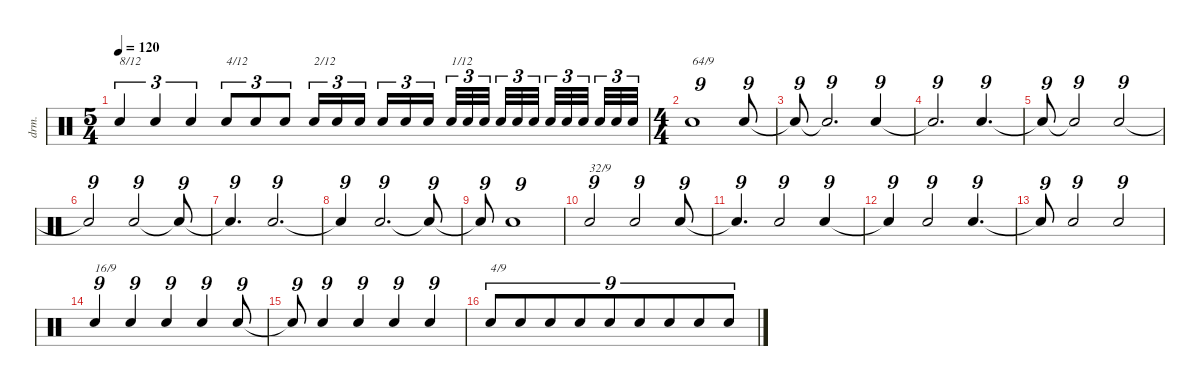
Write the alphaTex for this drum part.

\defaultSystemsLayout 4
\hideDynamics
\bracketExtendMode nobrackets
\otherSystemsTrackNameOrientation horizontal
\track ("Drumkit" "drm.") {instrument percussion}
\staff {score}
\articulation defaults
\ts (5 4)
\tempo 120
\clef neutral
\ks c "Snare (hit) 2".4{tu (3 2) txt "8/12" dy mf beam Up} "Snare (hit) 2".4{tu (3 2) beam Up} "Snare (hit) 2".4{tu (3 2) beam Up} "Snare (hit) 2".8{tu (3 2) txt "4/12" beam Up} "Snare (hit) 2".8{tu (3 2) beam Up} "Snare (hit) 2".8{tu (3 2) beam Up} "Snare (hit) 2".16{tu (3 2) txt "2/12" beam Up} "Snare (hit) 2".16{tu (3 2) beam Up} "Snare (hit) 2".16{tu (3 2) beam Up} "Snare (hit) 2".16{tu (3 2) beam Up} "Snare (hit) 2".16{tu (3 2) beam Up} "Snare (hit) 2".16{tu (3 2) beam Up} "Snare (hit) 2".32{tu (3 2) txt "1/12" beam Up} "Snare (hit) 2".32{tu (3 2) beam Up} "Snare (hit) 2".32{tu (3 2) beam Up} "Snare (hit) 2".32{tu (3 2) beam Up} "Snare (hit) 2".32{tu (3 2) beam Up} "Snare (hit) 2".32{tu (3 2) beam Up} "Snare (hit) 2".32{tu (3 2) beam Up} "Snare (hit) 2".32{tu (3 2) beam Up} "Snare (hit) 2".32{tu (3 2) beam Up} "Snare (hit) 2".32{tu (3 2) beam Up} "Snare (hit) 2".32{tu (3 2) beam Up} "Snare (hit) 2".32{tu (3 2) beam Up}
|
\ts (4 4)
\beaming (8 2 2 2 2)
"Snare (hit) 2".1{tu (9 8) txt "64/9" beam Up} "Snare (hit) 2".8{tu (9 8) beam Up} |
"Snare (hit) 2"{t}.8{tu (9 8) beam Up} "Snare (hit) 2"{t}.2{d tu (9 8) beam Up} "Snare (hit) 2".4{tu (9 8) beam Up} |
"Snare (hit) 2"{t}.2{d tu (9 8) beam Up} "Snare (hit) 2".4{d tu (9 8) beam Up} |
"Snare (hit) 2"{t}.8{tu (9 8) beam Up} "Snare (hit) 2"{t}.2{tu (9 8) beam Up} "Snare (hit) 2".2{tu (9 8) beam Up} |
"Snare (hit) 2"{t}.2{tu (9 8) beam Up} "Snare (hit) 2".2{tu (9 8) beam Up} "Snare (hit) 2"{t}.8{tu (9 8) beam Up} |
"Snare (hit) 2"{t}.4{d tu (9 8) beam Up} "Snare (hit) 2".2{d tu (9 8) beam Up} |
"Snare (hit) 2"{t}.4{tu (9 8) beam Up} "Snare (hit) 2".2{d tu (9 8) beam Up} "Snare (hit) 2"{t}.8{tu (9 8) beam Up} |
"Snare (hit) 2"{t}.8{tu (9 8) beam Up} "Snare (hit) 2".1{tu (9 8) beam Up} |
"Snare (hit) 2".2{tu (9 8) txt "32/9" beam Up} "Snare (hit) 2".2{tu (9 8) beam Up} "Snare (hit) 2".8{tu (9 8) beam Up} |
"Snare (hit) 2"{t}.4{d tu (9 8) beam Up} "Snare (hit) 2".2{tu (9 8) beam Up} "Snare (hit) 2".4{tu (9 8) beam Up} |
"Snare (hit) 2"{t}.4{tu (9 8) beam Up} "Snare (hit) 2".2{tu (9 8) beam Up} "Snare (hit) 2".4{d tu (9 8) beam Up} |
"Snare (hit) 2"{t}.8{tu (9 8) beam Up} "Snare (hit) 2".2{tu (9 8) beam Up} "Snare (hit) 2".2{tu (9 8) beam Up} |
"Snare (hit) 2".4{tu (9 8) txt "16/9" beam Up} "Snare (hit) 2".4{tu (9 8) beam Up} "Snare (hit) 2".4{tu (9 8) beam Up} "Snare (hit) 2".4{tu (9 8) beam Up} "Snare (hit) 2".8{tu (9 8) beam Up} |
"Snare (hit) 2"{t}.8{tu (9 8) beam Up} "Snare (hit) 2".4{tu (9 8) beam Up} "Snare (hit) 2".4{tu (9 8) beam Up} "Snare (hit) 2".4{tu (9 8) beam Up} "Snare (hit) 2".4{tu (9 8) beam Up} |
"Snare (hit) 2".8{tu (9 8) txt "4/9" beam Up} "Snare (hit) 2".8{tu (9 8) beam Up} "Snare (hit) 2".8{tu (9 8) beam Up} "Snare (hit) 2".8{tu (9 8) beam Up} "Snare (hit) 2".8{tu (9 8) beam Up} "Snare (hit) 2".8{tu (9 8) beam Up} "Snare (hit) 2".8{tu (9 8) beam Up} "Snare (hit) 2".8{tu (9 8) beam Up} "Snare (hit) 2".8{tu (9 8) beam Up}
